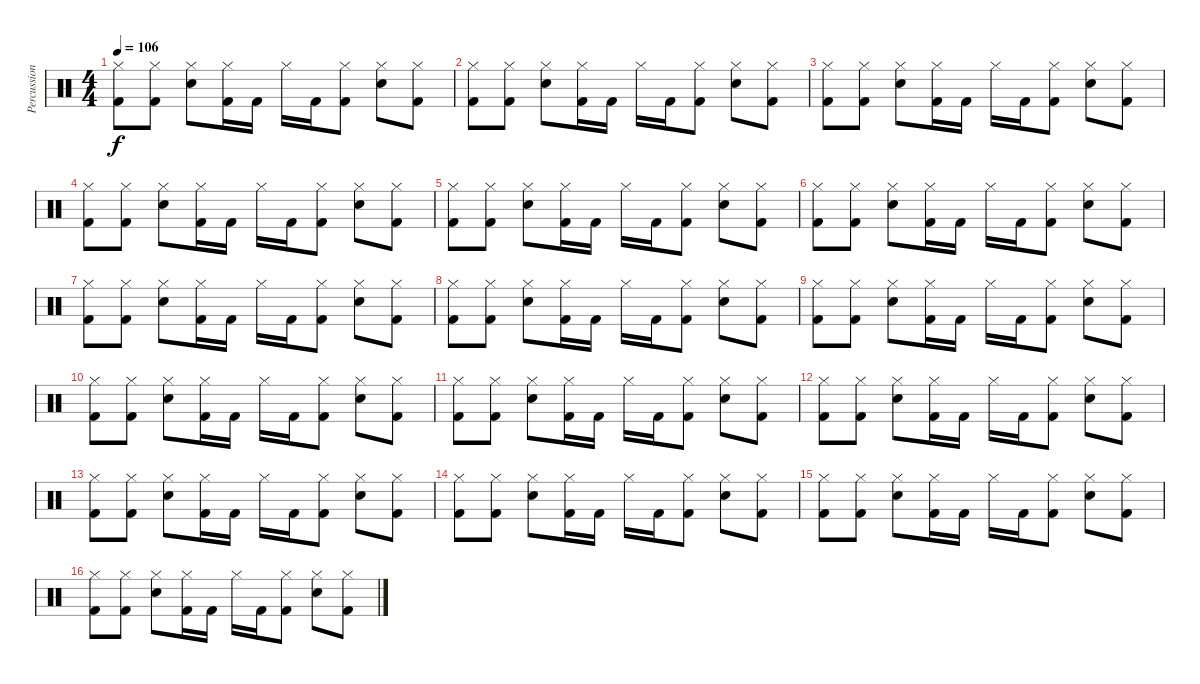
\track ("Percussion" "Percussion") {instrument percussion}
\staff {score}
\articulation defaults
\ts (4 4)
\tempo 106
\clef neutral
\ks c
("Hi-Hat (closed)" "Kick (hit) 2").8{dy f} ("Hi-Hat (closed)" "Kick (hit) 2").8 ("Hi-Hat (closed)" "Snare (hit) 2").8 ("Hi-Hat (closed)" "Kick (hit) 2").16 "Kick (hit) 2".16 "Hi-Hat (closed)".16 "Kick (hit) 2".16 ("Hi-Hat (closed)" "Kick (hit) 2").8 ("Hi-Hat (closed)" "Snare (hit) 2").8 ("Hi-Hat (closed)" "Kick (hit) 2").8 |
("Hi-Hat (closed)" "Kick (hit) 2").8 ("Hi-Hat (closed)" "Kick (hit) 2").8 ("Hi-Hat (closed)" "Snare (hit) 2").8 ("Hi-Hat (closed)" "Kick (hit) 2").16 "Kick (hit) 2".16 "Hi-Hat (closed)".16 "Kick (hit) 2".16 ("Hi-Hat (closed)" "Kick (hit) 2").8 ("Hi-Hat (closed)" "Snare (hit) 2").8 ("Hi-Hat (closed)" "Kick (hit) 2").8 |
("Hi-Hat (closed)" "Kick (hit) 2").8 ("Hi-Hat (closed)" "Kick (hit) 2").8 ("Hi-Hat (closed)" "Snare (hit) 2").8 ("Hi-Hat (closed)" "Kick (hit) 2").16 "Kick (hit) 2".16 "Hi-Hat (closed)".16 "Kick (hit) 2".16 ("Hi-Hat (closed)" "Kick (hit) 2").8 ("Hi-Hat (closed)" "Snare (hit) 2").8 ("Hi-Hat (closed)" "Kick (hit) 2").8 |
("Hi-Hat (closed)" "Kick (hit) 2").8 ("Hi-Hat (closed)" "Kick (hit) 2").8 ("Hi-Hat (closed)" "Snare (hit) 2").8 ("Hi-Hat (closed)" "Kick (hit) 2").16 "Kick (hit) 2".16 "Hi-Hat (closed)".16 "Kick (hit) 2".16 ("Hi-Hat (closed)" "Kick (hit) 2").8 ("Hi-Hat (closed)" "Snare (hit) 2").8 ("Hi-Hat (closed)" "Kick (hit) 2").8 |
("Hi-Hat (closed)" "Kick (hit) 2").8 ("Hi-Hat (closed)" "Kick (hit) 2").8 ("Hi-Hat (closed)" "Snare (hit) 2").8 ("Hi-Hat (closed)" "Kick (hit) 2").16 "Kick (hit) 2".16 "Hi-Hat (closed)".16 "Kick (hit) 2".16 ("Hi-Hat (closed)" "Kick (hit) 2").8 ("Hi-Hat (closed)" "Snare (hit) 2").8 ("Hi-Hat (closed)" "Kick (hit) 2").8 |
("Hi-Hat (closed)" "Kick (hit) 2").8 ("Hi-Hat (closed)" "Kick (hit) 2").8 ("Hi-Hat (closed)" "Snare (hit) 2").8 ("Hi-Hat (closed)" "Kick (hit) 2").16 "Kick (hit) 2".16 "Hi-Hat (closed)".16 "Kick (hit) 2".16 ("Hi-Hat (closed)" "Kick (hit) 2").8 ("Hi-Hat (closed)" "Snare (hit) 2").8 ("Hi-Hat (closed)" "Kick (hit) 2").8 |
("Hi-Hat (closed)" "Kick (hit) 2").8 ("Hi-Hat (closed)" "Kick (hit) 2").8 ("Hi-Hat (closed)" "Snare (hit) 2").8 ("Hi-Hat (closed)" "Kick (hit) 2").16 "Kick (hit) 2".16 "Hi-Hat (closed)".16 "Kick (hit) 2".16 ("Hi-Hat (closed)" "Kick (hit) 2").8 ("Hi-Hat (closed)" "Snare (hit) 2").8 ("Hi-Hat (closed)" "Kick (hit) 2").8 |
("Hi-Hat (closed)" "Kick (hit) 2").8 ("Hi-Hat (closed)" "Kick (hit) 2").8 ("Hi-Hat (closed)" "Snare (hit) 2").8 ("Hi-Hat (closed)" "Kick (hit) 2").16 "Kick (hit) 2".16 "Hi-Hat (closed)".16 "Kick (hit) 2".16 ("Hi-Hat (closed)" "Kick (hit) 2").8 ("Hi-Hat (closed)" "Snare (hit) 2").8 ("Hi-Hat (closed)" "Kick (hit) 2").8 |
("Hi-Hat (closed)" "Kick (hit) 2").8 ("Hi-Hat (closed)" "Kick (hit) 2").8 ("Hi-Hat (closed)" "Snare (hit) 2").8 ("Hi-Hat (closed)" "Kick (hit) 2").16 "Kick (hit) 2".16 "Hi-Hat (closed)".16 "Kick (hit) 2".16 ("Hi-Hat (closed)" "Kick (hit) 2").8 ("Hi-Hat (closed)" "Snare (hit) 2").8 ("Hi-Hat (closed)" "Kick (hit) 2").8 |
("Hi-Hat (closed)" "Kick (hit) 2").8 ("Hi-Hat (closed)" "Kick (hit) 2").8 ("Hi-Hat (closed)" "Snare (hit) 2").8 ("Hi-Hat (closed)" "Kick (hit) 2").16 "Kick (hit) 2".16 "Hi-Hat (closed)".16 "Kick (hit) 2".16 ("Hi-Hat (closed)" "Kick (hit) 2").8 ("Hi-Hat (closed)" "Snare (hit) 2").8 ("Hi-Hat (closed)" "Kick (hit) 2").8 |
("Hi-Hat (closed)" "Kick (hit) 2").8 ("Hi-Hat (closed)" "Kick (hit) 2").8 ("Hi-Hat (closed)" "Snare (hit) 2").8 ("Hi-Hat (closed)" "Kick (hit) 2").16 "Kick (hit) 2".16 "Hi-Hat (closed)".16 "Kick (hit) 2".16 ("Hi-Hat (closed)" "Kick (hit) 2").8 ("Hi-Hat (closed)" "Snare (hit) 2").8 ("Hi-Hat (closed)" "Kick (hit) 2").8 |
("Hi-Hat (closed)" "Kick (hit) 2").8 ("Hi-Hat (closed)" "Kick (hit) 2").8 ("Hi-Hat (closed)" "Snare (hit) 2").8 ("Hi-Hat (closed)" "Kick (hit) 2").16 "Kick (hit) 2".16 "Hi-Hat (closed)".16 "Kick (hit) 2".16 ("Hi-Hat (closed)" "Kick (hit) 2").8 ("Hi-Hat (closed)" "Snare (hit) 2").8 ("Hi-Hat (closed)" "Kick (hit) 2").8 |
("Hi-Hat (closed)" "Kick (hit) 2").8 ("Hi-Hat (closed)" "Kick (hit) 2").8 ("Hi-Hat (closed)" "Snare (hit) 2").8 ("Hi-Hat (closed)" "Kick (hit) 2").16 "Kick (hit) 2".16 "Hi-Hat (closed)".16 "Kick (hit) 2".16 ("Hi-Hat (closed)" "Kick (hit) 2").8 ("Hi-Hat (closed)" "Snare (hit) 2").8 ("Hi-Hat (closed)" "Kick (hit) 2").8 |
("Hi-Hat (closed)" "Kick (hit) 2").8 ("Hi-Hat (closed)" "Kick (hit) 2").8 ("Hi-Hat (closed)" "Snare (hit) 2").8 ("Hi-Hat (closed)" "Kick (hit) 2").16 "Kick (hit) 2".16 "Hi-Hat (closed)".16 "Kick (hit) 2".16 ("Hi-Hat (closed)" "Kick (hit) 2").8 ("Hi-Hat (closed)" "Snare (hit) 2").8 ("Hi-Hat (closed)" "Kick (hit) 2").8 |
("Hi-Hat (closed)" "Kick (hit) 2").8 ("Hi-Hat (closed)" "Kick (hit) 2").8 ("Hi-Hat (closed)" "Snare (hit) 2").8 ("Hi-Hat (closed)" "Kick (hit) 2").16 "Kick (hit) 2".16 "Hi-Hat (closed)".16 "Kick (hit) 2".16 ("Hi-Hat (closed)" "Kick (hit) 2").8 ("Hi-Hat (closed)" "Snare (hit) 2").8 ("Hi-Hat (closed)" "Kick (hit) 2").8 |
("Hi-Hat (closed)" "Kick (hit) 2").8 ("Hi-Hat (closed)" "Kick (hit) 2").8 ("Hi-Hat (closed)" "Snare (hit) 2").8 ("Hi-Hat (closed)" "Kick (hit) 2").16 "Kick (hit) 2".16 "Hi-Hat (closed)".16 "Kick (hit) 2".16 ("Hi-Hat (closed)" "Kick (hit) 2").8 ("Hi-Hat (closed)" "Snare (hit) 2").8 ("Hi-Hat (closed)" "Kick (hit) 2").8
